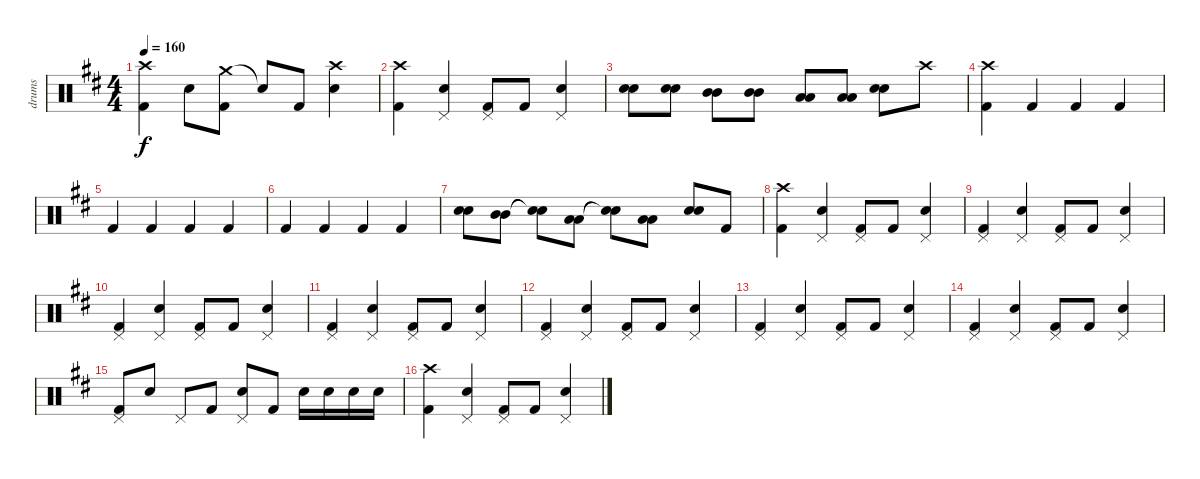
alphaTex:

\track ("drums" "drums") {instrument percussion}
\staff {score}
\articulation defaults
\ts (4 4)
\tempo 160
\clef neutral
\ks bminor
("Crash high (hit)" "Kick (hit) 2").4{dy f} "Snare (hit) 2".8 ("Crash medium (hit)" "Kick (hit) 2").8 "Snare (hit)"{t}.8 "Kick (hit) 2".8 ("Crash high (hit)" "Snare (hit) 2").4 |
("Crash high (hit)" "Kick (hit) 2").4 ("Pedal Hi-Hat (hit)" "Snare (hit) 2").4 ("Pedal Hi-Hat (hit)" "Kick (hit) 2").8 "Kick (hit) 2".8 ("Pedal Hi-Hat (hit)" "Snare (hit) 2").4 |
("Snare (hit) 2" "Snare (hit) 2").8 ("Snare (hit) 2" "Snare (hit) 2").8 ("Mid Tom (hit)" "Mid Tom (hit)").8 ("Mid Tom (hit)" "Mid Tom (hit)").8 ("Low Tom (hit)" "Low Tom (hit)").8 ("Low Tom (hit)" "Low Tom (hit)").8 ("Snare (hit) 2" "Snare (hit) 2").8 "Crash high (hit)".8 |
("Crash high (hit)" "Kick (hit) 2").4 "Kick (hit) 2".4 "Kick (hit) 2".4 "Kick (hit) 2".4 |
"Kick (hit) 2".4 "Kick (hit) 2".4 "Kick (hit) 2".4 "Kick (hit) 2".4 |
"Kick (hit) 2".4 "Kick (hit) 2".4 "Kick (hit) 2".4 "Kick (hit) 2".4 |
("Snare (hit) 2" "Snare (hit) 2").8 ("Mid Tom (hit)" "Mid Tom (hit)").8 ("Snare (hit)"{t} "Snare (hit)"{t}).8 ("Low Tom (hit)" "Low Tom (hit)").8 ("Snare (hit)"{t} "Snare (hit)"{t}).8 ("Low Tom (hit)" "Low Tom (hit)").8 ("Snare (hit) 2" "Snare (hit) 2").8 "Kick (hit) 2".8 |
("Crash high (hit)" "Kick (hit) 2").4 ("Pedal Hi-Hat (hit)" "Snare (hit) 2").4 ("Pedal Hi-Hat (hit)" "Kick (hit) 2").8 "Kick (hit) 2".8 ("Pedal Hi-Hat (hit)" "Snare (hit) 2").4 |
("Pedal Hi-Hat (hit)" "Kick (hit) 2").4 ("Pedal Hi-Hat (hit)" "Snare (hit) 2").4 ("Pedal Hi-Hat (hit)" "Kick (hit) 2").8 "Kick (hit) 2".8 ("Pedal Hi-Hat (hit)" "Snare (hit) 2").4 |
("Pedal Hi-Hat (hit)" "Kick (hit) 2").4 ("Pedal Hi-Hat (hit)" "Snare (hit) 2").4 ("Pedal Hi-Hat (hit)" "Kick (hit) 2").8 "Kick (hit) 2".8 ("Pedal Hi-Hat (hit)" "Snare (hit) 2").4 |
("Pedal Hi-Hat (hit)" "Kick (hit) 2").4 ("Pedal Hi-Hat (hit)" "Snare (hit) 2").4 ("Pedal Hi-Hat (hit)" "Kick (hit) 2").8 "Kick (hit) 2".8 ("Pedal Hi-Hat (hit)" "Snare (hit) 2").4 |
("Pedal Hi-Hat (hit)" "Kick (hit) 2").4 ("Pedal Hi-Hat (hit)" "Snare (hit) 2").4 ("Pedal Hi-Hat (hit)" "Kick (hit) 2").8 "Kick (hit) 2".8 ("Pedal Hi-Hat (hit)" "Snare (hit) 2").4 |
("Pedal Hi-Hat (hit)" "Kick (hit) 2").4 ("Pedal Hi-Hat (hit)" "Snare (hit) 2").4 ("Pedal Hi-Hat (hit)" "Kick (hit) 2").8 "Kick (hit) 2".8 ("Pedal Hi-Hat (hit)" "Snare (hit) 2").4 |
("Pedal Hi-Hat (hit)" "Kick (hit) 2").4 ("Pedal Hi-Hat (hit)" "Snare (hit) 2").4 ("Pedal Hi-Hat (hit)" "Kick (hit) 2").8 "Kick (hit) 2".8 ("Pedal Hi-Hat (hit)" "Snare (hit) 2").4 |
("Pedal Hi-Hat (hit)" "Kick (hit) 2").8 "Snare (hit) 2".8 "Pedal Hi-Hat (hit)".8 "Kick (hit) 2".8 ("Pedal Hi-Hat (hit)" "Snare (hit) 2").8 "Kick (hit) 2".8 "Snare (hit) 2".16 "Snare (hit) 2".16 "Snare (hit) 2".16 "Snare (hit) 2".16 |
("Crash high (hit)" "Kick (hit) 2").4 ("Pedal Hi-Hat (hit)" "Snare (hit) 2").4 ("Pedal Hi-Hat (hit)" "Kick (hit) 2").8 "Kick (hit) 2".8 ("Pedal Hi-Hat (hit)" "Snare (hit) 2").4
